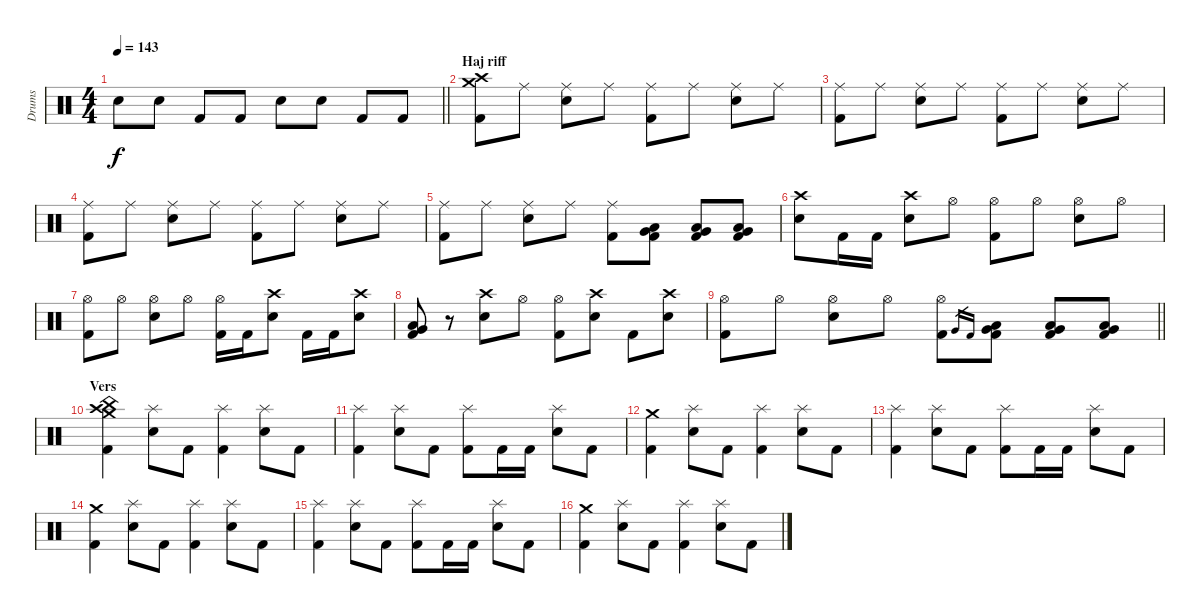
\track ("Drums" "Drums") {instrument percussion}
\staff {score}
\articulation defaults
\ts (4 4)
\tempo 143
\clef neutral
\barLineRight lightlight
\ks c "Snare (hit) 2".8{dy f} "Snare (hit) 2".8 "Kick (hit) 2".8 "Kick (hit) 2".8 "Snare (hit) 2".8 "Snare (hit) 2".8 "Kick (hit) 2".8 "Kick (hit) 2".8
|
\section ("" "Haj riff")
("Crash medium (hit)" "Crash high (hit)" "Kick (hit) 2").8 "Ride (middle)".8 ("Ride (middle)" "Snare (hit) 2").8 "Ride (middle)".8 ("Ride (middle)" "Kick (hit) 2").8 "Ride (middle)".8 ("Ride (middle)" "Snare (hit) 2").8 "Ride (middle)".8 |
("Ride (middle)" "Kick (hit) 2").8 "Ride (middle)".8 ("Ride (middle)" "Snare (hit) 2").8 "Ride (middle)".8 ("Ride (middle)" "Kick (hit) 2").8 "Ride (middle)".8 ("Ride (middle)" "Snare (hit) 2").8 "Ride (middle)".8 |
("Ride (middle)" "Kick (hit) 2").8 "Ride (middle)".8 ("Ride (middle)" "Snare (hit) 2").8 "Ride (middle)".8 ("Ride (middle)" "Kick (hit) 2").8 "Ride (middle)".8 ("Ride (middle)" "Snare (hit) 2").8 "Ride (middle)".8 |
("Ride (middle)" "Kick (hit) 2").8 "Ride (middle)".8 ("Ride (middle)" "Snare (hit) 2").8 "Ride (middle)".8 ("Ride (middle)" "Kick (hit) 2").8 ("Low Floor Tom (hit)" "Very Low Tom (hit)" "Kick (hit) 2").8 ("Low Floor Tom (hit)" "Very Low Tom (hit)" "Kick (hit) 2").8 ("Low Floor Tom (hit)" "Very Low Tom (hit)" "Kick (hit) 2").8 |
("Crash high (hit)" "Snare (hit) 2").8 "Kick (hit) 2".16 "Kick (hit) 2".16 ("Crash high (hit)" "Snare (hit) 2").8 "Hi-Hat (open)".8 ("Hi-Hat (open)" "Kick (hit) 2").8 "Hi-Hat (open)".8 ("Hi-Hat (open)" "Snare (hit) 2").8 "Hi-Hat (open)".8 |
("Hi-Hat (open)" "Kick (hit) 2").8 "Hi-Hat (open)".8 ("Hi-Hat (open)" "Snare (hit) 2").8 "Hi-Hat (open)".8 ("Hi-Hat (open)" "Kick (hit) 2").16 "Kick (hit) 2".16 ("Crash high (hit)" "Snare (hit) 2").8 "Kick (hit) 2".16 "Kick (hit) 2".16 ("Crash high (hit)" "Snare (hit) 2").8 |
("Low Tom (hit)" "Very Low Tom (hit)" "Kick (hit) 2").8 r.8 ("Crash high (hit)" "Snare (hit) 2").8 "Hi-Hat (open)".8 ("Hi-Hat (open)" "Kick (hit) 2").8 ("Crash high (hit)" "Snare (hit) 2").8 "Kick (hit) 2".8 ("Crash high (hit)" "Snare (hit) 2").8 |
\barLineRight lightlight
("Hi-Hat (open)" "Kick (hit) 2").8 "Hi-Hat (open)".8 ("Hi-Hat (open)" "Snare (hit) 2").8 "Hi-Hat (open)".8 ("Hi-Hat (open)" "Kick (hit) 2").8 "Very Low Tom (hit)".16{gr} "Kick (hit) 2".16{gr} ("Low Floor Tom (hit)" "Very Low Tom (hit)" "Kick (hit) 2").8 ("Low Floor Tom (hit)" "Very Low Tom (hit)" "Kick (hit) 2").8 ("Low Floor Tom (hit)" "Very Low Tom (hit)" "Kick (hit) 2").8 |
\section ("" "Vers")
("China (hit)" "Crash medium (hit)" "Crash high (hit)" "Kick (hit) 2").4 ("Splash (hit)" "Snare (hit) 2").8 "Kick (hit) 2".8 ("Splash (hit)" "Kick (hit) 2").4 ("Splash (hit)" "Snare (hit) 2").8 "Kick (hit) 2".8 |
("Splash (hit)" "Kick (hit) 2").4 ("Splash (hit)" "Snare (hit) 2").8 "Kick (hit) 2".8 ("Splash (hit)" "Kick (hit) 2").8 "Kick (hit) 2".16 "Kick (hit) 2".16 ("Splash (hit)" "Snare (hit) 2").8 "Kick (hit) 2".8 |
("Crash medium (hit)" "Kick (hit) 2").4 ("Splash (hit)" "Snare (hit) 2").8 "Kick (hit) 2".8 ("Splash (hit)" "Kick (hit) 2").4 ("Splash (hit)" "Snare (hit) 2").8 "Kick (hit) 2".8 |
("Splash (hit)" "Kick (hit) 2").4 ("Splash (hit)" "Snare (hit) 2").8 "Kick (hit) 2".8 ("Splash (hit)" "Kick (hit) 2").8 "Kick (hit) 2".16 "Kick (hit) 2".16 ("Splash (hit)" "Snare (hit) 2").8 "Kick (hit) 2".8 |
("Crash medium (hit)" "Kick (hit) 2").4 ("Splash (hit)" "Snare (hit) 2").8 "Kick (hit) 2".8 ("Splash (hit)" "Kick (hit) 2").4 ("Splash (hit)" "Snare (hit) 2").8 "Kick (hit) 2".8 |
("Splash (hit)" "Kick (hit) 2").4 ("Splash (hit)" "Snare (hit) 2").8 "Kick (hit) 2".8 ("Splash (hit)" "Kick (hit) 2").8 "Kick (hit) 2".16 "Kick (hit) 2".16 ("Splash (hit)" "Snare (hit) 2").8 "Kick (hit) 2".8 |
("Crash medium (hit)" "Kick (hit) 2").4 ("Splash (hit)" "Snare (hit) 2").8 "Kick (hit) 2".8 ("Splash (hit)" "Kick (hit) 2").4 ("Splash (hit)" "Snare (hit) 2").8 "Kick (hit) 2".8
